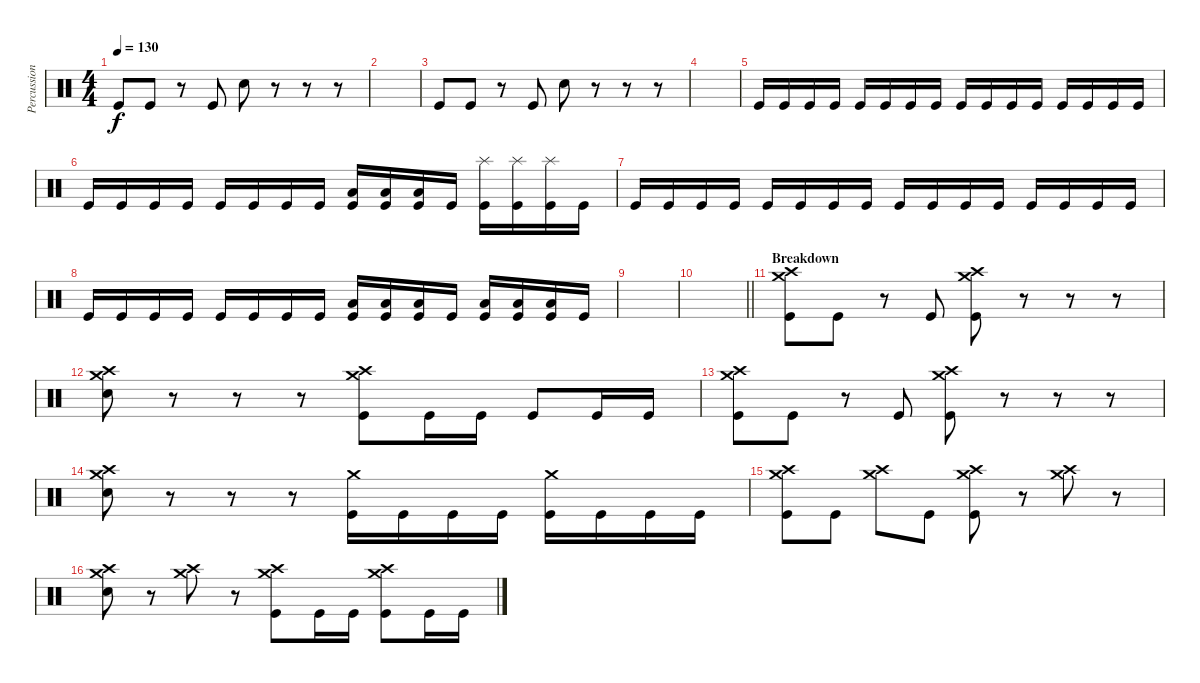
\track ("Percussion (Approx.)" "Percussion") {instrument percussion}
\staff {score}
\articulation defaults
\ts (4 4)
\tempo 130
\clef neutral
\ks c "Kick (hit)".8{dy f} "Kick (hit)".8
r.8 "Kick (hit)".8 "Snare (hit) 2".8 r.8 r.8 r.8 |
|
"Kick (hit)".8 "Kick (hit)".8 r.8 "Kick (hit)".8 "Snare (hit) 2".8 r.8 r.8 r.8 |
|
"Kick (hit)".16 "Kick (hit)".16 "Kick (hit)".16 "Kick (hit)".16 "Kick (hit)".16 "Kick (hit)".16 "Kick (hit)".16 "Kick (hit)".16 "Kick (hit)".16 "Kick (hit)".16 "Kick (hit)".16 "Kick (hit)".16 "Kick (hit)".16 "Kick (hit)".16 "Kick (hit)".16 "Kick (hit)".16 |
"Kick (hit)".16 "Kick (hit)".16 "Kick (hit)".16 "Kick (hit)".16 "Kick (hit)".16 "Kick (hit)".16 "Kick (hit)".16 "Kick (hit)".16 ("Low Floor Tom (hit)" "Kick (hit)").16 ("Low Floor Tom (hit)" "Kick (hit)").16 ("Low Floor Tom (hit)" "Kick (hit)").16 "Kick (hit)".16 ("Splash (hit)" "Kick (hit)").16 ("Splash (hit)" "Kick (hit)").16 ("Splash (hit)" "Kick (hit)").16 "Kick (hit)".16 |
"Kick (hit)".16 "Kick (hit)".16 "Kick (hit)".16 "Kick (hit)".16 "Kick (hit)".16 "Kick (hit)".16 "Kick (hit)".16 "Kick (hit)".16 "Kick (hit)".16 "Kick (hit)".16 "Kick (hit)".16 "Kick (hit)".16 "Kick (hit)".16 "Kick (hit)".16 "Kick (hit)".16 "Kick (hit)".16 |
"Kick (hit)".16 "Kick (hit)".16 "Kick (hit)".16 "Kick (hit)".16 "Kick (hit)".16 "Kick (hit)".16 "Kick (hit)".16 "Kick (hit)".16 ("Low Floor Tom (hit)" "Kick (hit)").16 ("Low Floor Tom (hit)" "Kick (hit)").16 ("Low Floor Tom (hit)" "Kick (hit)").16 "Kick (hit)".16 ("Low Floor Tom (hit)" "Kick (hit)").16 ("Low Floor Tom (hit)" "Kick (hit)").16 ("Low Floor Tom (hit)" "Kick (hit)").16 "Kick (hit)".16 |
|
\barLineRight lightlight
|
\section ("" "Breakdown")
("Crash medium (hit)" "Crash high (hit)" "Kick (hit)").8 "Kick (hit)".8 r.8 "Kick (hit)".8 ("Crash medium (hit)" "Crash high (hit)" "Kick (hit)").8 r.8 r.8 r.8 |
("Crash medium (hit)" "Crash high (hit)" "Electric Snare (hit)").8 r.8 r.8 r.8 ("Crash medium (hit)" "Crash high (hit)" "Kick (hit)").8 "Kick (hit)".16 "Kick (hit)".16 "Kick (hit)".8 "Kick (hit)".16 "Kick (hit)".16 |
("Crash medium (hit)" "Crash high (hit)" "Kick (hit)").8 "Kick (hit)".8 r.8 "Kick (hit)".8 ("Crash medium (hit)" "Crash high (hit)" "Kick (hit)").8 r.8 r.8 r.8 |
("Crash medium (hit)" "Crash high (hit)" "Electric Snare (hit)").8 r.8 r.8 r.8 ("Crash medium (hit)" "Kick (hit)").16 "Kick (hit)".16 "Kick (hit)".16 "Kick (hit)".16 ("Crash medium (hit)" "Kick (hit)").16 "Kick (hit)".16 "Kick (hit)".16 "Kick (hit)".16 |
("Crash medium (hit)" "Crash high (hit)" "Kick (hit)").8 "Kick (hit)".8 ("Crash medium (hit)" "Crash high (hit)").8 "Kick (hit)".8 ("Crash medium (hit)" "Crash high (hit)" "Kick (hit)").8 r.8 ("Crash medium (hit)" "Crash high (hit)").8 r.8 |
("Crash medium (hit)" "Crash high (hit)" "Electric Snare (hit)").8 r.8 ("Crash medium (hit)" "Crash high (hit)").8 r.8 ("Crash medium (hit)" "Crash high (hit)" "Kick (hit)").8 "Kick (hit)".16 "Kick (hit)".16 ("Crash medium (hit)" "Crash high (hit)" "Kick (hit)").8 "Kick (hit)".16 "Kick (hit)".16
